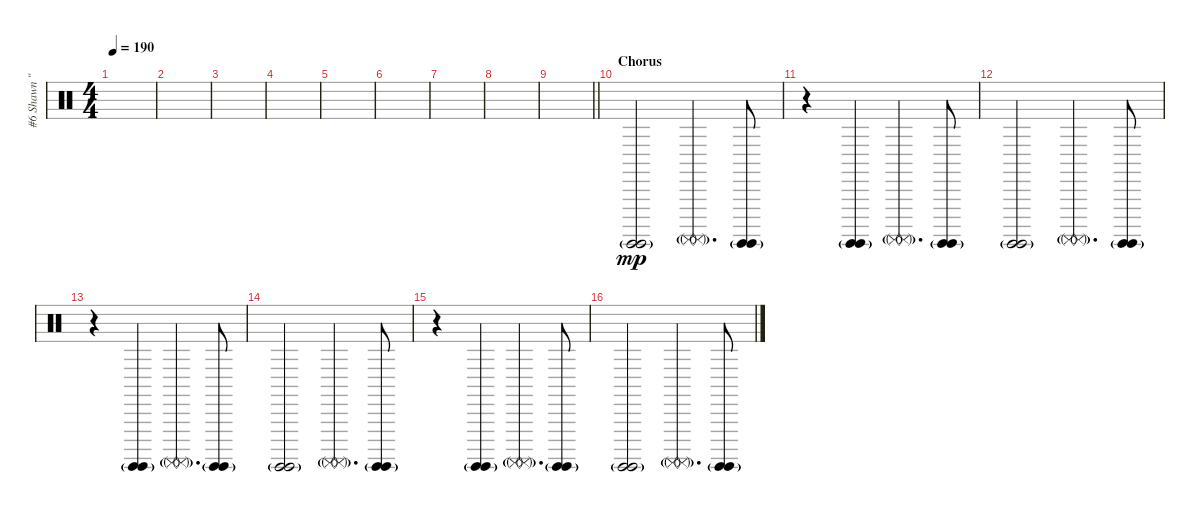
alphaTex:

\track ("#6 Shawn \"Clown\" Crahan" "#6 Shawn \"") {instrument percussion}
\staff {score}
\articulation defaults
\ts (4 4)
\tempo 190
\clef neutral
\ks c
|
|
|
|
|
|
|
|
\barLineRight lightlight
|
\section ("" "Chorus")
("Surdo (hit)"{g} "Surdo (hit)"{g}).2{dy mp} ("Surdo (mute)"{g} "Surdo (mute)"{g}).4{d} ("Surdo (hit)"{g} "Surdo (hit)"{g}).8 |
r.4 ("Surdo (hit)"{g} "Surdo (hit)"{g}).4 ("Surdo (mute)"{g} "Surdo (mute)"{g}).4{d} ("Surdo (hit)"{g} "Surdo (hit)"{g}).8 |
("Surdo (hit)"{g} "Surdo (hit)"{g}).2 ("Surdo (mute)"{g} "Surdo (mute)"{g}).4{d} ("Surdo (hit)"{g} "Surdo (hit)"{g}).8 |
r.4 ("Surdo (hit)"{g} "Surdo (hit)"{g}).4 ("Surdo (mute)"{g} "Surdo (mute)"{g}).4{d} ("Surdo (hit)"{g} "Surdo (hit)"{g}).8 |
("Surdo (hit)"{g} "Surdo (hit)"{g}).2 ("Surdo (mute)"{g} "Surdo (mute)"{g}).4{d} ("Surdo (hit)"{g} "Surdo (hit)"{g}).8 |
r.4 ("Surdo (hit)"{g} "Surdo (hit)"{g}).4 ("Surdo (mute)"{g} "Surdo (mute)"{g}).4{d} ("Surdo (hit)"{g} "Surdo (hit)"{g}).8 |
("Surdo (hit)"{g} "Surdo (hit)"{g}).2 ("Surdo (mute)"{g} "Surdo (mute)"{g}).4{d} ("Surdo (hit)"{g} "Surdo (hit)"{g}).8
